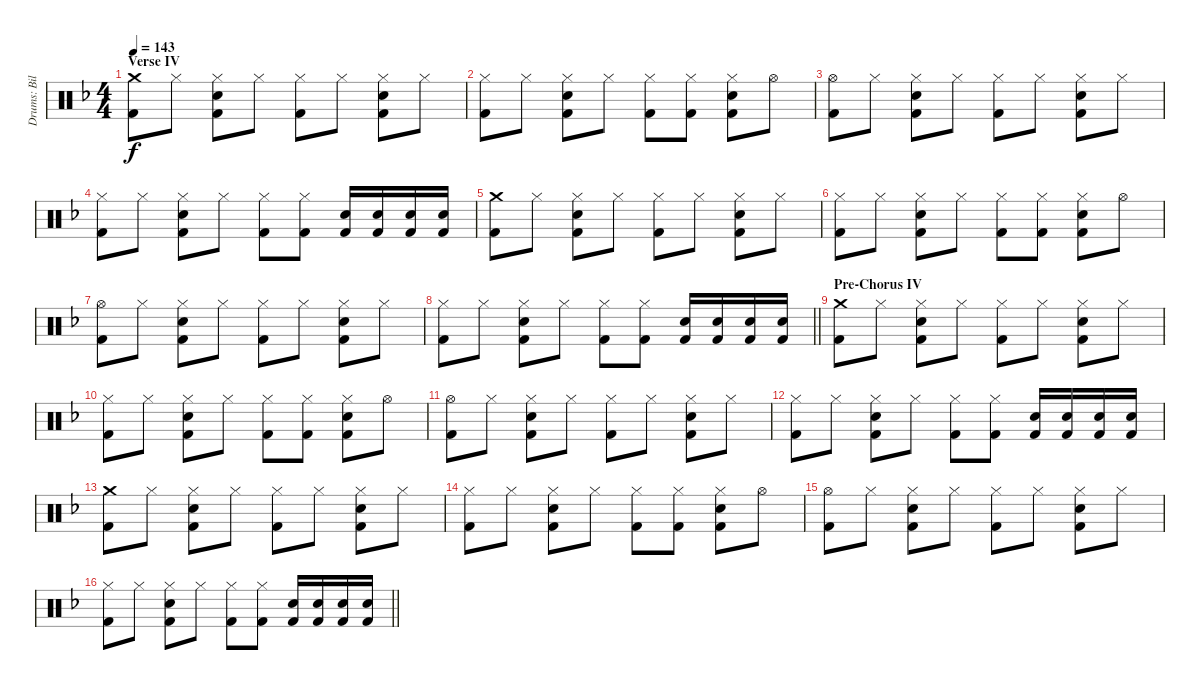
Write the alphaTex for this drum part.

\track ("Drums: Bill" "Drums: Bil") {instrument percussion}
\staff {score}
\articulation defaults
\ts (4 4)
\section ("" "Verse IV")
\tempo 143
\clef neutral
\ks f
("Crash medium (hit)" "Kick (hit) 2").8{dy f} "Hi-Hat (closed)".8 ("Hi-Hat (closed)" "Snare (hit) 2" "Kick (hit) 2").8 "Hi-Hat (closed)".8 ("Hi-Hat (closed)" "Kick (hit) 2").8 "Hi-Hat (closed)".8 ("Hi-Hat (closed)" "Snare (hit) 2" "Kick (hit) 2").8 "Hi-Hat (closed)".8 |
("Hi-Hat (closed)" "Kick (hit) 2").8 "Hi-Hat (closed)".8 ("Hi-Hat (closed)" "Snare (hit) 2" "Kick (hit) 2").8 "Hi-Hat (closed)".8 ("Hi-Hat (closed)" "Kick (hit) 2").8 ("Hi-Hat (closed)" "Kick (hit) 2").8 ("Hi-Hat (closed)" "Snare (hit) 2" "Kick (hit) 2").8 "Hi-Hat (open)".8 |
("Hi-Hat (open)" "Kick (hit) 2").8 "Hi-Hat (closed)".8 ("Hi-Hat (closed)" "Snare (hit) 2" "Kick (hit) 2").8 "Hi-Hat (closed)".8 ("Hi-Hat (closed)" "Kick (hit) 2").8 "Hi-Hat (closed)".8 ("Hi-Hat (closed)" "Snare (hit) 2" "Kick (hit) 2").8 "Hi-Hat (closed)".8 |
("Hi-Hat (closed)" "Kick (hit) 2").8 "Hi-Hat (closed)".8 ("Hi-Hat (closed)" "Snare (hit) 2" "Kick (hit) 2").8 "Hi-Hat (closed)".8 ("Hi-Hat (closed)" "Kick (hit) 2").8 ("Hi-Hat (closed)" "Kick (hit) 2").8 ("Snare (hit) 2" "Kick (hit) 2").16 ("Snare (hit) 2" "Kick (hit) 2").16 ("Snare (hit) 2" "Kick (hit) 2").16 ("Snare (hit) 2" "Kick (hit) 2").16 |
("Crash medium (hit)" "Kick (hit) 2").8 "Hi-Hat (closed)".8 ("Hi-Hat (closed)" "Snare (hit) 2" "Kick (hit) 2").8 "Hi-Hat (closed)".8 ("Hi-Hat (closed)" "Kick (hit) 2").8 "Hi-Hat (closed)".8 ("Hi-Hat (closed)" "Snare (hit) 2" "Kick (hit) 2").8 "Hi-Hat (closed)".8 |
("Hi-Hat (closed)" "Kick (hit) 2").8 "Hi-Hat (closed)".8 ("Hi-Hat (closed)" "Snare (hit) 2" "Kick (hit) 2").8 "Hi-Hat (closed)".8 ("Hi-Hat (closed)" "Kick (hit) 2").8 ("Hi-Hat (closed)" "Kick (hit) 2").8 ("Hi-Hat (closed)" "Snare (hit) 2" "Kick (hit) 2").8 "Hi-Hat (open)".8 |
("Hi-Hat (open)" "Kick (hit) 2").8 "Hi-Hat (closed)".8 ("Hi-Hat (closed)" "Snare (hit) 2" "Kick (hit) 2").8 "Hi-Hat (closed)".8 ("Hi-Hat (closed)" "Kick (hit) 2").8 "Hi-Hat (closed)".8 ("Hi-Hat (closed)" "Snare (hit) 2" "Kick (hit) 2").8 "Hi-Hat (closed)".8 |
\barLineRight lightlight
("Hi-Hat (closed)" "Kick (hit) 2").8 "Hi-Hat (closed)".8 ("Hi-Hat (closed)" "Snare (hit) 2" "Kick (hit) 2").8 "Hi-Hat (closed)".8 ("Hi-Hat (closed)" "Kick (hit) 2").8 ("Hi-Hat (closed)" "Kick (hit) 2").8 ("Snare (hit) 2" "Kick (hit) 2").16 ("Snare (hit) 2" "Kick (hit) 2").16 ("Snare (hit) 2" "Kick (hit) 2").16 ("Snare (hit) 2" "Kick (hit) 2").16 |
\section ("" "Pre-Chorus IV")
("Crash medium (hit)" "Kick (hit) 2").8 "Hi-Hat (closed)".8 ("Hi-Hat (closed)" "Snare (hit) 2" "Kick (hit) 2").8 "Hi-Hat (closed)".8 ("Hi-Hat (closed)" "Kick (hit) 2").8 "Hi-Hat (closed)".8 ("Hi-Hat (closed)" "Snare (hit) 2" "Kick (hit) 2").8 "Hi-Hat (closed)".8 |
("Hi-Hat (closed)" "Kick (hit) 2").8 "Hi-Hat (closed)".8 ("Hi-Hat (closed)" "Snare (hit) 2" "Kick (hit) 2").8 "Hi-Hat (closed)".8 ("Hi-Hat (closed)" "Kick (hit) 2").8 ("Hi-Hat (closed)" "Kick (hit) 2").8 ("Hi-Hat (closed)" "Snare (hit) 2" "Kick (hit) 2").8 "Hi-Hat (open)".8 |
("Hi-Hat (open)" "Kick (hit) 2").8 "Hi-Hat (closed)".8 ("Hi-Hat (closed)" "Snare (hit) 2" "Kick (hit) 2").8 "Hi-Hat (closed)".8 ("Hi-Hat (closed)" "Kick (hit) 2").8 "Hi-Hat (closed)".8 ("Hi-Hat (closed)" "Snare (hit) 2" "Kick (hit) 2").8 "Hi-Hat (closed)".8 |
("Hi-Hat (closed)" "Kick (hit) 2").8 "Hi-Hat (closed)".8 ("Hi-Hat (closed)" "Snare (hit) 2" "Kick (hit) 2").8 "Hi-Hat (closed)".8 ("Hi-Hat (closed)" "Kick (hit) 2").8 ("Hi-Hat (closed)" "Kick (hit) 2").8 ("Snare (hit) 2" "Kick (hit) 2").16 ("Snare (hit) 2" "Kick (hit) 2").16 ("Snare (hit) 2" "Kick (hit) 2").16 ("Snare (hit) 2" "Kick (hit) 2").16 |
("Crash medium (hit)" "Kick (hit) 2").8 "Hi-Hat (closed)".8 ("Hi-Hat (closed)" "Snare (hit) 2" "Kick (hit) 2").8 "Hi-Hat (closed)".8 ("Hi-Hat (closed)" "Kick (hit) 2").8 "Hi-Hat (closed)".8 ("Hi-Hat (closed)" "Snare (hit) 2" "Kick (hit) 2").8 "Hi-Hat (closed)".8 |
("Hi-Hat (closed)" "Kick (hit) 2").8 "Hi-Hat (closed)".8 ("Hi-Hat (closed)" "Snare (hit) 2" "Kick (hit) 2").8 "Hi-Hat (closed)".8 ("Hi-Hat (closed)" "Kick (hit) 2").8 ("Hi-Hat (closed)" "Kick (hit) 2").8 ("Hi-Hat (closed)" "Snare (hit) 2" "Kick (hit) 2").8 "Hi-Hat (open)".8 |
("Hi-Hat (open)" "Kick (hit) 2").8 "Hi-Hat (closed)".8 ("Hi-Hat (closed)" "Snare (hit) 2" "Kick (hit) 2").8 "Hi-Hat (closed)".8 ("Hi-Hat (closed)" "Kick (hit) 2").8 "Hi-Hat (closed)".8 ("Hi-Hat (closed)" "Snare (hit) 2" "Kick (hit) 2").8 "Hi-Hat (closed)".8 |
\barLineRight lightlight
("Hi-Hat (closed)" "Kick (hit) 2").8 "Hi-Hat (closed)".8 ("Hi-Hat (closed)" "Snare (hit) 2" "Kick (hit) 2").8 "Hi-Hat (closed)".8 ("Hi-Hat (closed)" "Kick (hit) 2").8 ("Hi-Hat (closed)" "Kick (hit) 2").8 ("Snare (hit) 2" "Kick (hit) 2").16 ("Snare (hit) 2" "Kick (hit) 2").16 ("Snare (hit) 2" "Kick (hit) 2").16 ("Snare (hit) 2" "Kick (hit) 2").16
